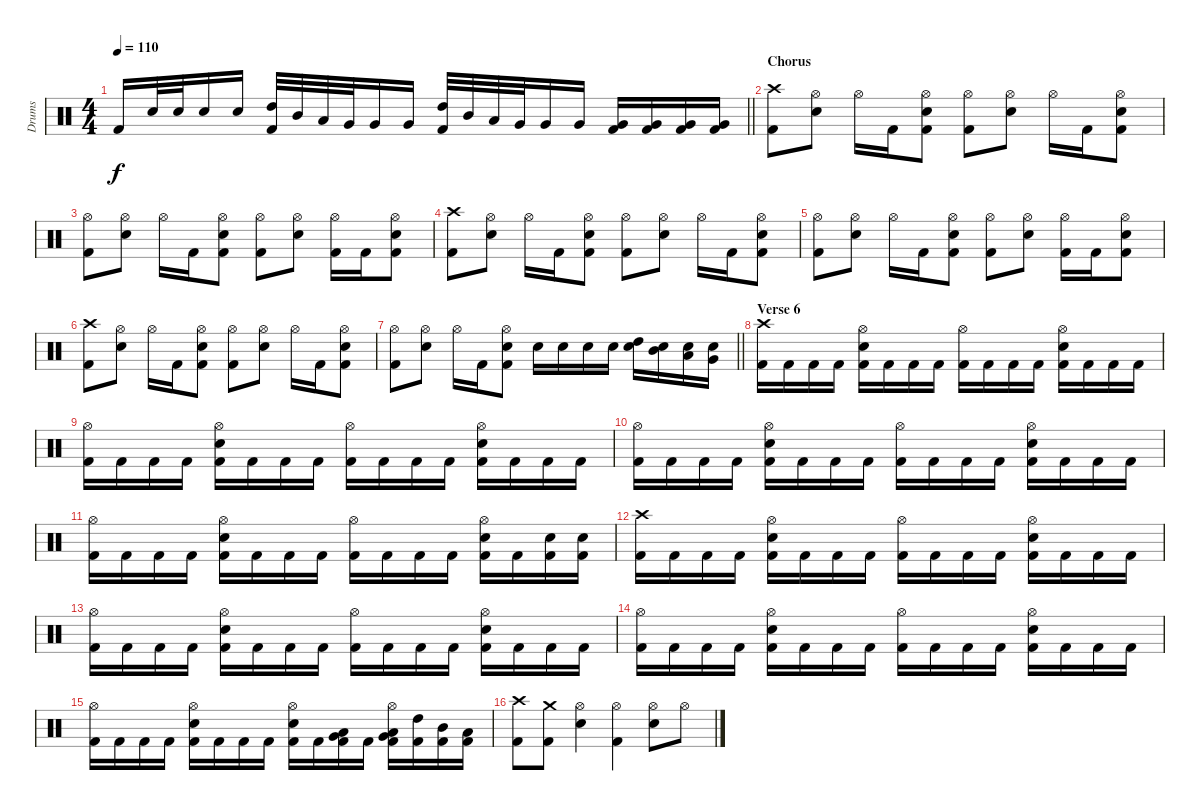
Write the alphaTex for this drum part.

\track ("Drums" "Drums") {instrument percussion}
\staff {score}
\articulation defaults
\ts (4 4)
\tempo 110
\clef neutral
\barLineRight lightlight
\ks c "Kick (hit) 2".16{dy f} "Electric Snare (hit)".32 "Electric Snare (hit)".32 "Electric Snare (hit)".16 "Electric Snare (hit)".16
("High Tom (hit)" "Kick (hit) 2").32 "Mid Tom (hit)".32 "Low Tom (hit)".32 "Very Low Tom (hit)".32 "Very Low Tom (hit)".16 "Very Low Tom (hit)".16 ("High Tom (hit)" "Kick (hit) 2").32 "Mid Tom (hit)".32 "Low Tom (hit)".32 "Very Low Tom (hit)".32 "Very Low Tom (hit)".16 "Very Low Tom (hit)".16 ("Very Low Tom (hit)" "Kick (hit) 2").16 ("Very Low Tom (hit)" "Kick (hit) 2").16 ("Very Low Tom (hit)" "Kick (hit) 2").16 ("Very Low Tom (hit)" "Kick (hit) 2").16 |
\section ("" "Chorus")
("Crash high (hit)" "Kick (hit) 2").8 ("Hi-Hat (open)" "Electric Snare (hit)").8 "Hi-Hat (open)".16 "Kick (hit) 2".16 ("Hi-Hat (open)" "Electric Snare (hit)" "Kick (hit) 2").8 ("Hi-Hat (open)" "Kick (hit) 2").8 ("Hi-Hat (open)" "Electric Snare (hit)").8 "Hi-Hat (open)".16 "Kick (hit) 2".16 ("Hi-Hat (open)" "Electric Snare (hit)" "Kick (hit) 2").8 |
("Hi-Hat (open)" "Kick (hit) 2").8 ("Hi-Hat (open)" "Electric Snare (hit)").8 "Hi-Hat (open)".16 "Kick (hit) 2".16 ("Hi-Hat (open)" "Electric Snare (hit)" "Kick (hit) 2").8 ("Hi-Hat (open)" "Kick (hit) 2").8 ("Hi-Hat (open)" "Electric Snare (hit)").8 ("Hi-Hat (open)" "Kick (hit) 2").16 "Kick (hit) 2".16 ("Hi-Hat (open)" "Electric Snare (hit)" "Kick (hit) 2").8 |
("Crash high (hit)" "Kick (hit) 2").8 ("Hi-Hat (open)" "Electric Snare (hit)").8 "Hi-Hat (open)".16 "Kick (hit) 2".16 ("Hi-Hat (open)" "Electric Snare (hit)" "Kick (hit) 2").8 ("Hi-Hat (open)" "Kick (hit) 2").8 ("Hi-Hat (open)" "Electric Snare (hit)").8 "Hi-Hat (open)".16 "Kick (hit) 2".16 ("Hi-Hat (open)" "Electric Snare (hit)" "Kick (hit) 2").8 |
("Hi-Hat (open)" "Kick (hit) 2").8 ("Hi-Hat (open)" "Electric Snare (hit)").8 "Hi-Hat (open)".16 "Kick (hit) 2".16 ("Hi-Hat (open)" "Electric Snare (hit)" "Kick (hit) 2").8 ("Hi-Hat (open)" "Kick (hit) 2").8 ("Hi-Hat (open)" "Electric Snare (hit)").8 ("Hi-Hat (open)" "Kick (hit) 2").16 "Kick (hit) 2".16 ("Hi-Hat (open)" "Electric Snare (hit)" "Kick (hit) 2").8 |
("Crash high (hit)" "Kick (hit) 2").8 ("Hi-Hat (open)" "Electric Snare (hit)").8 "Hi-Hat (open)".16 "Kick (hit) 2".16 ("Hi-Hat (open)" "Electric Snare (hit)" "Kick (hit) 2").8 ("Hi-Hat (open)" "Kick (hit) 2").8 ("Hi-Hat (open)" "Electric Snare (hit)").8 "Hi-Hat (open)".16 "Kick (hit) 2".16 ("Hi-Hat (open)" "Electric Snare (hit)" "Kick (hit) 2").8 |
\barLineRight lightlight
("Hi-Hat (open)" "Kick (hit) 2").8 ("Hi-Hat (open)" "Electric Snare (hit)").8 "Hi-Hat (open)".16 "Kick (hit) 2".16 ("Hi-Hat (open)" "Electric Snare (hit)" "Kick (hit) 2").8 "Electric Snare (hit)".16 "Electric Snare (hit)".16 "Electric Snare (hit)".16 "Electric Snare (hit)".16 ("High Tom (hit)" "Electric Snare (hit)").16 ("Mid Tom (hit)" "Electric Snare (hit)").16 ("Low Tom (hit)" "Electric Snare (hit)").16 ("Very Low Tom (hit)" "Electric Snare (hit)").16 |
\section ("" "Verse 6")
("Crash high (hit)" "Kick (hit) 2").16 "Kick (hit) 2".16 "Kick (hit) 2".16 "Kick (hit) 2".16 ("Hi-Hat (open)" "Electric Snare (hit)" "Kick (hit) 2").16 "Kick (hit) 2".16 "Kick (hit) 2".16 "Kick (hit) 2".16 ("Hi-Hat (open)" "Kick (hit) 2").16 "Kick (hit) 2".16 "Kick (hit) 2".16 "Kick (hit) 2".16 ("Hi-Hat (open)" "Electric Snare (hit)" "Kick (hit) 2").16 "Kick (hit) 2".16 "Kick (hit) 2".16 "Kick (hit) 2".16 |
("Hi-Hat (open)" "Kick (hit) 2").16 "Kick (hit) 2".16 "Kick (hit) 2".16 "Kick (hit) 2".16 ("Hi-Hat (open)" "Electric Snare (hit)" "Kick (hit) 2").16 "Kick (hit) 2".16 "Kick (hit) 2".16 "Kick (hit) 2".16 ("Hi-Hat (open)" "Kick (hit) 2").16 "Kick (hit) 2".16 "Kick (hit) 2".16 "Kick (hit) 2".16 ("Hi-Hat (open)" "Electric Snare (hit)" "Kick (hit) 2").16 "Kick (hit) 2".16 "Kick (hit) 2".16 "Kick (hit) 2".16 |
("Hi-Hat (open)" "Kick (hit) 2").16 "Kick (hit) 2".16 "Kick (hit) 2".16 "Kick (hit) 2".16 ("Hi-Hat (open)" "Electric Snare (hit)" "Kick (hit) 2").16 "Kick (hit) 2".16 "Kick (hit) 2".16 "Kick (hit) 2".16 ("Hi-Hat (open)" "Kick (hit) 2").16 "Kick (hit) 2".16 "Kick (hit) 2".16 "Kick (hit) 2".16 ("Hi-Hat (open)" "Electric Snare (hit)" "Kick (hit) 2").16 "Kick (hit) 2".16 "Kick (hit) 2".16 "Kick (hit) 2".16 |
("Hi-Hat (open)" "Kick (hit) 2").16 "Kick (hit) 2".16 "Kick (hit) 2".16 "Kick (hit) 2".16 ("Hi-Hat (open)" "Electric Snare (hit)" "Kick (hit) 2").16 "Kick (hit) 2".16 "Kick (hit) 2".16 "Kick (hit) 2".16 ("Hi-Hat (open)" "Kick (hit) 2").16 "Kick (hit) 2".16 "Kick (hit) 2".16 "Kick (hit) 2".16 ("Hi-Hat (open)" "Electric Snare (hit)" "Kick (hit) 2").16 "Kick (hit) 2".16 ("Electric Snare (hit)" "Kick (hit) 2").16 ("Electric Snare (hit)" "Kick (hit) 2").16 |
("Crash high (hit)" "Kick (hit) 2").16 "Kick (hit) 2".16 "Kick (hit) 2".16 "Kick (hit) 2".16 ("Hi-Hat (open)" "Electric Snare (hit)" "Kick (hit) 2").16 "Kick (hit) 2".16 "Kick (hit) 2".16 "Kick (hit) 2".16 ("Hi-Hat (open)" "Kick (hit) 2").16 "Kick (hit) 2".16 "Kick (hit) 2".16 "Kick (hit) 2".16 ("Hi-Hat (open)" "Electric Snare (hit)" "Kick (hit) 2").16 "Kick (hit) 2".16 "Kick (hit) 2".16 "Kick (hit) 2".16 |
("Hi-Hat (open)" "Kick (hit) 2").16 "Kick (hit) 2".16 "Kick (hit) 2".16 "Kick (hit) 2".16 ("Hi-Hat (open)" "Electric Snare (hit)" "Kick (hit) 2").16 "Kick (hit) 2".16 "Kick (hit) 2".16 "Kick (hit) 2".16 ("Hi-Hat (open)" "Kick (hit) 2").16 "Kick (hit) 2".16 "Kick (hit) 2".16 "Kick (hit) 2".16 ("Hi-Hat (open)" "Electric Snare (hit)" "Kick (hit) 2").16 "Kick (hit) 2".16 "Kick (hit) 2".16 "Kick (hit) 2".16 |
("Hi-Hat (open)" "Kick (hit) 2").16 "Kick (hit) 2".16 "Kick (hit) 2".16 "Kick (hit) 2".16 ("Hi-Hat (open)" "Electric Snare (hit)" "Kick (hit) 2").16 "Kick (hit) 2".16 "Kick (hit) 2".16 "Kick (hit) 2".16 ("Hi-Hat (open)" "Kick (hit) 2").16 "Kick (hit) 2".16 "Kick (hit) 2".16 "Kick (hit) 2".16 ("Hi-Hat (open)" "Electric Snare (hit)" "Kick (hit) 2").16 "Kick (hit) 2".16 "Kick (hit) 2".16 "Kick (hit) 2".16 |
("Hi-Hat (open)" "Kick (hit) 2").16 "Kick (hit) 2".16 "Kick (hit) 2".16 "Kick (hit) 2".16 ("Hi-Hat (open)" "Electric Snare (hit)" "Kick (hit) 2").16 "Kick (hit) 2".16 "Kick (hit) 2".16 "Kick (hit) 2".16 ("Hi-Hat (open)" "Electric Snare (hit)" "Kick (hit) 2").16 "Kick (hit) 2".16 ("Low Tom (hit)" "Very Low Tom (hit)" "Kick (hit) 2").16 "Kick (hit) 2".16 ("Hi-Hat (open)" "Low Tom (hit)" "Very Low Tom (hit)" "Kick (hit) 2").16 ("High Tom (hit)" "Kick (hit) 2").16 ("Mid Tom (hit)" "Kick (hit) 2").16 ("Low Tom (hit)" "Kick (hit) 2").16 |
("Crash high (hit)" "Kick (hit) 2").8 ("Crash medium (hit)" "Kick (hit) 2").8 ("Hi-Hat (open)" "Electric Snare (hit)").4 ("Hi-Hat (open)" "Kick (hit) 2").4 ("Hi-Hat (open)" "Electric Snare (hit)").8 "Hi-Hat (open)".8
